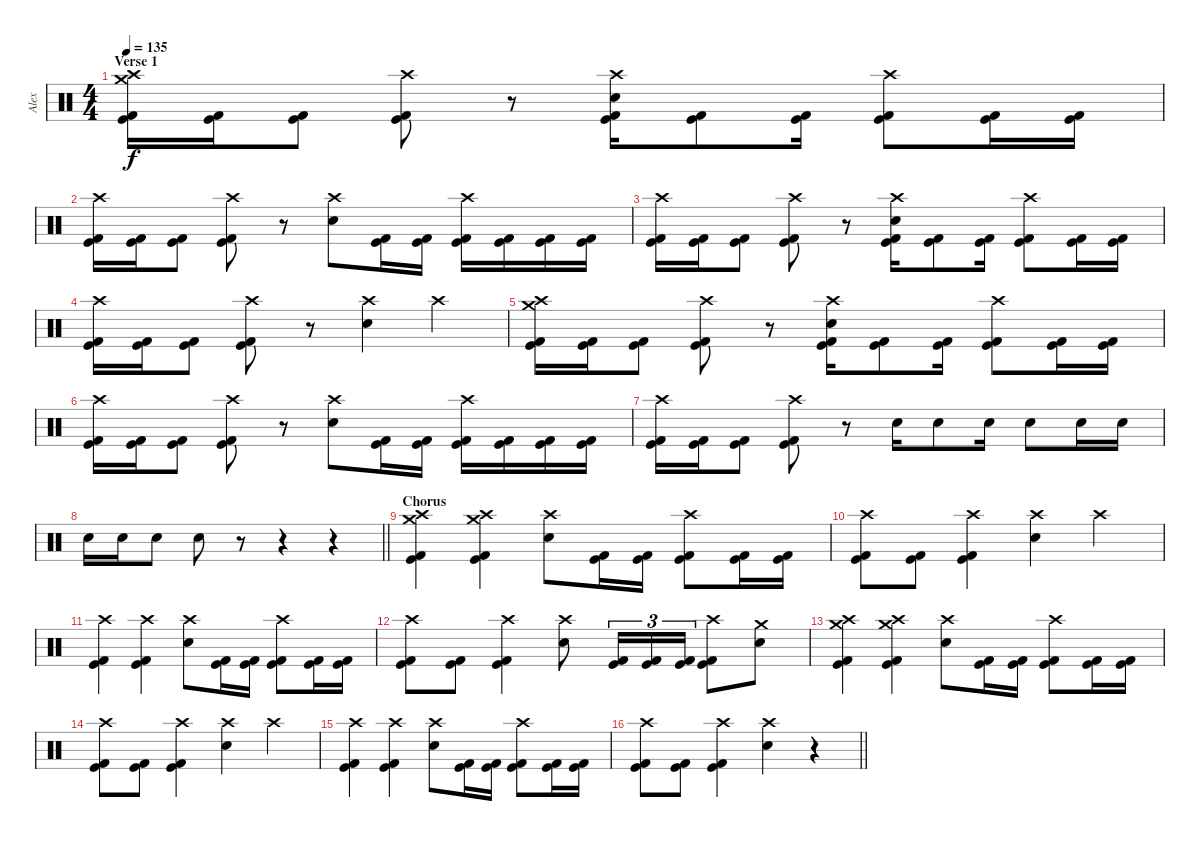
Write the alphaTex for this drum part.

\track ("Alex" "Alex") {instrument percussion}
\staff {score}
\articulation defaults
\ts (4 4)
\section ("" "Verse 1")
\tempo 135
\clef neutral
\ks c
("Crash medium (hit)" "Crash high (hit)" "Kick (hit) 2" "Kick (hit)").16{dy f} ("Kick (hit) 2" "Kick (hit)").16 ("Kick (hit) 2" "Kick (hit)").8 ("Crash high (hit)" "Kick (hit) 2" "Kick (hit)").8 r.8 ("Crash high (hit)" "Electric Snare (hit)" "Kick (hit) 2" "Kick (hit)").16 ("Kick (hit) 2" "Kick (hit)").8 ("Kick (hit) 2" "Kick (hit)").16 ("Crash high (hit)" "Kick (hit) 2" "Kick (hit)").8 ("Kick (hit) 2" "Kick (hit)").16 ("Kick (hit) 2" "Kick (hit)").16 |
("Crash high (hit)" "Kick (hit) 2" "Kick (hit)").16 ("Kick (hit) 2" "Kick (hit)").16 ("Kick (hit) 2" "Kick (hit)").8 ("Crash high (hit)" "Kick (hit) 2" "Kick (hit)").8 r.8 ("Crash high (hit)" "Electric Snare (hit)").8 ("Kick (hit) 2" "Kick (hit)").16 ("Kick (hit) 2" "Kick (hit)").16 ("Crash high (hit)" "Kick (hit) 2" "Kick (hit)").16 ("Kick (hit) 2" "Kick (hit)").16 ("Kick (hit) 2" "Kick (hit)").16 ("Kick (hit) 2" "Kick (hit)").16 |
("Crash high (hit)" "Kick (hit) 2" "Kick (hit)").16 ("Kick (hit) 2" "Kick (hit)").16 ("Kick (hit) 2" "Kick (hit)").8 ("Crash high (hit)" "Kick (hit) 2" "Kick (hit)").8 r.8 ("Crash high (hit)" "Electric Snare (hit)" "Kick (hit) 2" "Kick (hit)").16 ("Kick (hit) 2" "Kick (hit)").8 ("Kick (hit) 2" "Kick (hit)").16 ("Crash high (hit)" "Kick (hit) 2" "Kick (hit)").8 ("Kick (hit) 2" "Kick (hit)").16 ("Kick (hit) 2" "Kick (hit)").16 |
("Crash high (hit)" "Kick (hit) 2" "Kick (hit)").16 ("Kick (hit) 2" "Kick (hit)").16 ("Kick (hit) 2" "Kick (hit)").8 ("Crash high (hit)" "Kick (hit) 2" "Kick (hit)").8 r.8 ("Crash high (hit)" "Electric Snare (hit)").4 "Crash high (hit)".4 |
("Crash medium (hit)" "Crash high (hit)" "Kick (hit) 2" "Kick (hit)").16 ("Kick (hit) 2" "Kick (hit)").16 ("Kick (hit) 2" "Kick (hit)").8 ("Crash high (hit)" "Kick (hit) 2" "Kick (hit)").8 r.8 ("Crash high (hit)" "Electric Snare (hit)" "Kick (hit) 2" "Kick (hit)").16 ("Kick (hit) 2" "Kick (hit)").8 ("Kick (hit) 2" "Kick (hit)").16 ("Crash high (hit)" "Kick (hit) 2" "Kick (hit)").8 ("Kick (hit) 2" "Kick (hit)").16 ("Kick (hit) 2" "Kick (hit)").16 |
("Crash high (hit)" "Kick (hit) 2" "Kick (hit)").16 ("Kick (hit) 2" "Kick (hit)").16 ("Kick (hit) 2" "Kick (hit)").8 ("Crash high (hit)" "Kick (hit) 2" "Kick (hit)").8 r.8 ("Crash high (hit)" "Electric Snare (hit)").8 ("Kick (hit) 2" "Kick (hit)").16 ("Kick (hit) 2" "Kick (hit)").16 ("Crash high (hit)" "Kick (hit) 2" "Kick (hit)").16 ("Kick (hit) 2" "Kick (hit)").16 ("Kick (hit) 2" "Kick (hit)").16 ("Kick (hit) 2" "Kick (hit)").16 |
("Crash high (hit)" "Kick (hit) 2" "Kick (hit)").16 ("Kick (hit) 2" "Kick (hit)").16 ("Kick (hit) 2" "Kick (hit)").8 ("Crash high (hit)" "Kick (hit) 2" "Kick (hit)").8 r.8 "Electric Snare (hit)".16 "Electric Snare (hit)".8 "Electric Snare (hit)".16 "Electric Snare (hit)".8 "Electric Snare (hit)".16 "Electric Snare (hit)".16 |
\barLineRight lightlight "Electric Snare (hit)".16 "Electric Snare (hit)".16 "Electric Snare (hit)".8 "Electric Snare (hit)".8
r.8 r.4 r.4 |
\section ("" "Chorus")
("Crash medium (hit)" "Crash high (hit)" "Kick (hit) 2" "Kick (hit)").4 ("Crash medium (hit)" "Crash high (hit)" "Kick (hit) 2" "Kick (hit)").4 ("Crash high (hit)" "Electric Snare (hit)").8 ("Kick (hit) 2" "Kick (hit)").16 ("Kick (hit) 2" "Kick (hit)").16 ("Crash high (hit)" "Kick (hit) 2" "Kick (hit)").8 ("Kick (hit) 2" "Kick (hit)").16 ("Kick (hit) 2" "Kick (hit)").16 |
("Crash high (hit)" "Kick (hit) 2" "Kick (hit)").8 ("Kick (hit) 2" "Kick (hit)").8 ("Crash high (hit)" "Kick (hit) 2" "Kick (hit)").4 ("Crash high (hit)" "Electric Snare (hit)").4 "Crash high (hit)".4 |
("Crash high (hit)" "Kick (hit) 2" "Kick (hit)").4 ("Crash high (hit)" "Kick (hit) 2" "Kick (hit)").4 ("Crash high (hit)" "Electric Snare (hit)").8 ("Kick (hit) 2" "Kick (hit)").16 ("Kick (hit) 2" "Kick (hit)").16 ("Crash high (hit)" "Kick (hit) 2" "Kick (hit)").8 ("Kick (hit) 2" "Kick (hit)").16 ("Kick (hit) 2" "Kick (hit)").16 |
("Crash high (hit)" "Kick (hit) 2" "Kick (hit)").8 ("Kick (hit) 2" "Kick (hit)").8 ("Crash high (hit)" "Kick (hit) 2" "Kick (hit)").4 ("Crash high (hit)" "Electric Snare (hit)").8 ("Kick (hit) 2" "Kick (hit)").16{tu (3 2)} ("Kick (hit) 2" "Kick (hit)").16{tu (3 2)} ("Kick (hit) 2" "Kick (hit)").16{tu (3 2)} ("Crash high (hit)" "Kick (hit) 2" "Kick (hit)").8 ("Crash medium (hit)" "Electric Snare (hit)").8 |
("Crash medium (hit)" "Crash high (hit)" "Kick (hit) 2" "Kick (hit)").4 ("Crash medium (hit)" "Crash high (hit)" "Kick (hit) 2" "Kick (hit)").4 ("Crash high (hit)" "Electric Snare (hit)").8 ("Kick (hit) 2" "Kick (hit)").16 ("Kick (hit) 2" "Kick (hit)").16 ("Crash high (hit)" "Kick (hit) 2" "Kick (hit)").8 ("Kick (hit) 2" "Kick (hit)").16 ("Kick (hit) 2" "Kick (hit)").16 |
("Crash high (hit)" "Kick (hit) 2" "Kick (hit)").8 ("Kick (hit) 2" "Kick (hit)").8 ("Crash high (hit)" "Kick (hit) 2" "Kick (hit)").4 ("Crash high (hit)" "Electric Snare (hit)").4 "Crash high (hit)".4 |
("Crash high (hit)" "Kick (hit) 2" "Kick (hit)").4 ("Crash high (hit)" "Kick (hit) 2" "Kick (hit)").4 ("Crash high (hit)" "Electric Snare (hit)").8 ("Kick (hit) 2" "Kick (hit)").16 ("Kick (hit) 2" "Kick (hit)").16 ("Crash high (hit)" "Kick (hit) 2" "Kick (hit)").8 ("Kick (hit) 2" "Kick (hit)").16 ("Kick (hit) 2" "Kick (hit)").16 |
\barLineRight lightlight
("Crash high (hit)" "Kick (hit) 2" "Kick (hit)").8 ("Kick (hit) 2" "Kick (hit)").8 ("Crash high (hit)" "Kick (hit) 2" "Kick (hit)").4 ("Crash high (hit)" "Electric Snare (hit)").4 r.4
